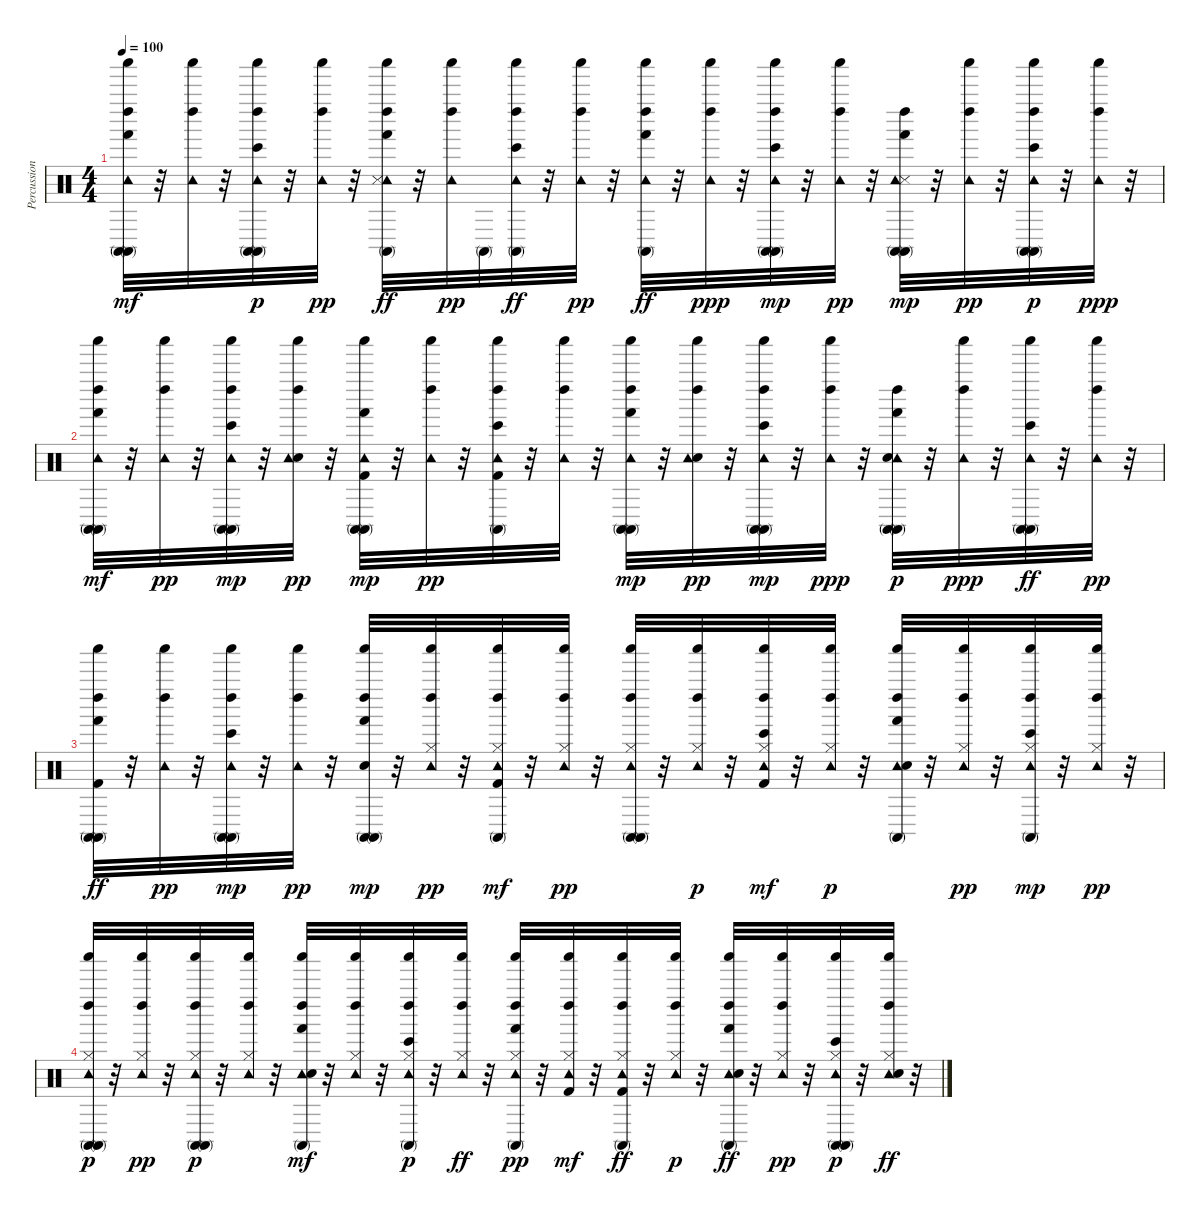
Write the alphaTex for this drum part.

\track ("Percussions" "Percussion") {instrument percussion}
\staff {score}
\articulation defaults
\ts (4 4)
\tempo 100
\clef neutral
\ks c
("Conga high (mute)" "Conga high (mute)" "Tambourine (hit)" "Hand (hit)" "Shaker (hit)" "Left Maraca (hit)").32{dy mf} r.32 ("Tambourine (hit)" "Shaker (hit)" "Left Maraca (hit)").32 r.32 ("Conga high (mute)" "Conga high (mute)" "Tambourine (hit)" "Bongo High (hit)" "Shaker (hit)" "Left Maraca (hit)").32{dy p} r.32 ("Tambourine (hit)" "Shaker (hit)" "Left Maraca (hit)").32{dy pp} r.32 ("Conga high (mute)" "Hand (hit)" "Tambourine (hit)" "Snare (side stick) 3" "Shaker (hit)" "Left Maraca (hit)").32{dy ff} r.32 ("Left Maraca (hit)" "Tambourine (hit)" "Shaker (hit)").32{dy pp} "Conga high (mute)".32 ("Conga high (mute)" "Bongo High (hit)" "Tambourine (hit)" "Left Maraca (hit)" "Shaker (hit)").32{dy ff} r.32 ("Tambourine (hit)" "Left Maraca (hit)" "Shaker (hit)").32{dy pp} r.32 ("Conga high (mute)" "Tambourine (hit)" "Hand (hit)" "Left Maraca (hit)" "Shaker (hit)").32{dy ff} r.32 ("Tambourine (hit)" "Left Maraca (hit)" "Shaker (hit)").32{dy ppp} r.32 ("Conga high (mute)" "Conga high (mute)" "Tambourine (hit)" "Bongo High (hit)" "Left Maraca (hit)" "Shaker (hit)").32{dy mp} r.32 ("Tambourine (hit)" "Left Maraca (hit)" "Shaker (hit)").32{dy pp} r.32 ("Conga high (mute)" "Snare (side stick) 3" "Tambourine (hit)" "Hand (hit)" "Conga high (mute)" "Left Maraca (hit)").32{dy mp} r.32 ("Tambourine (hit)" "Left Maraca (hit)" "Shaker (hit)").32{dy pp} r.32 ("Conga high (mute)" "Tambourine (hit)" "Bongo High (hit)" "Conga high (mute)" "Left Maraca (hit)" "Shaker (hit)").32{dy p} r.32 ("Tambourine (hit)" "Left Maraca (hit)" "Shaker (hit)").32{dy ppp} r.32 |
("Conga high (mute)" "Tambourine (hit)" "Hand (hit)" "Conga high (mute)" "Left Maraca (hit)" "Shaker (hit)").32{dy mf} r.32 ("Tambourine (hit)" "Left Maraca (hit)" "Shaker (hit)").32{dy pp} r.32 ("Conga high (mute)" "Bongo High (hit)" "Tambourine (hit)" "Left Maraca (hit)" "Shaker (hit)" "Conga high (mute)").32{dy mp} r.32 ("Electric Snare (hit)" "Tambourine (hit)" "Left Maraca (hit)" "Shaker (hit)").32{dy pp} r.32 ("Conga high (mute)" "Kick (hit) 2" "Tambourine (hit)" "Hand (hit)" "Shaker (hit)" "Conga high (mute)").32{dy mp} r.32 ("Tambourine (hit)" "Left Maraca (hit)" "Shaker (hit)").32{dy pp} r.32 ("Kick (hit) 2" "Conga high (mute)" "Tambourine (hit)" "Shaker (hit)" "Bongo High (hit)" "Left Maraca (hit)").32 r.32 ("Tambourine (hit)" "Left Maraca (hit)" "Shaker (hit)").32 r.32 ("Conga high (mute)" "Tambourine (hit)" "Hand (hit)" "Left Maraca (hit)" "Conga high (mute)" "Shaker (hit)").32{dy mp} r.32 ("Electric Snare (hit)" "Tambourine (hit)" "Left Maraca (hit)" "Shaker (hit)").32{dy pp} r.32 ("Conga high (mute)" "Tambourine (hit)" "Bongo High (hit)" "Left Maraca (hit)" "Shaker (hit)" "Conga high (mute)").32{dy mp} r.32 ("Left Maraca (hit)" "Tambourine (hit)" "Shaker (hit)").32{dy ppp} r.32 ("Conga high (mute)" "Tambourine (hit)" "Left Maraca (hit)" "Hand (hit)" "Electric Snare (hit)" "Conga high (mute)").32{dy p} r.32 ("Tambourine (hit)" "Left Maraca (hit)" "Shaker (hit)").32{dy ppp} r.32 ("Conga high (mute)" "Conga high (mute)" "Tambourine (hit)" "Bongo High (hit)" "Shaker (hit)").32{dy ff} r.32 ("Left Maraca (hit)" "Tambourine (hit)" "Shaker (hit)").32{dy pp} r.32 |
("Conga high (mute)" "Hand (hit)" "Left Maraca (hit)" "Conga high (mute)" "Kick (hit) 2" "Shaker (hit)").32{dy ff} r.32 ("Left Maraca (hit)" "Shaker (hit)" "Tambourine (hit)").32{dy pp} r.32 ("Conga high (mute)" "Left Maraca (hit)" "Shaker (hit)" "Conga high (mute)" "Bongo High (hit)" "Tambourine (hit)").32{dy mp} r.32 ("Left Maraca (hit)" "Shaker (hit)" "Tambourine (hit)").32{dy pp} r.32 ("Conga high (mute)" "Left Maraca (hit)" "Hand (hit)" "Electric Snare (hit)" "Shaker (hit)" "Conga high (mute)").32{dy mp} r.32 ("Left Maraca (hit)" "Hi-Hat (closed)" "Shaker (hit)" "Tambourine (hit)").32{dy pp} r.32 ("Conga high (mute)" "Left Maraca (hit)" "Kick (hit) 2" "Shaker (hit)" "Tambourine (hit)" "Hi-Hat (closed)").32{dy mf} r.32 ("Left Maraca (hit)" "Tambourine (hit)" "Hi-Hat (closed)" "Shaker (hit)").32{dy pp} r.32 ("Conga high (mute)" "Conga high (mute)" "Left Maraca (hit)" "Shaker (hit)" "Tambourine (hit)" "Hi-Hat (closed)").32 r.32 ("Left Maraca (hit)" "Hi-Hat (closed)" "Tambourine (hit)" "Shaker (hit)").32{dy p} r.32 ("Left Maraca (hit)" "Kick (hit) 2" "Tambourine (hit)" "Shaker (hit)" "Hi-Hat (closed)" "Bongo High (hit)").32{dy mf} r.32 ("Tambourine (hit)" "Left Maraca (hit)" "Hi-Hat (closed)" "Shaker (hit)").32{dy p} r.32 ("Tambourine (hit)" "Left Maraca (hit)" "Electric Snare (hit)" "Shaker (hit)" "Hand (hit)" "Conga high (mute)").32 r.32 ("Tambourine (hit)" "Left Maraca (hit)" "Hi-Hat (closed)" "Shaker (hit)").32{dy pp} r.32 ("Tambourine (hit)" "Left Maraca (hit)" "Conga high (mute)" "Hi-Hat (closed)" "Shaker (hit)" "Bongo High (hit)").32{dy mp} r.32 ("Tambourine (hit)" "Hi-Hat (closed)" "Left Maraca (hit)" "Shaker (hit)").32{dy pp} r.32 |
("Tambourine (hit)" "Conga high (mute)" "Left Maraca (hit)" "Conga high (mute)" "Hi-Hat (closed)" "Shaker (hit)").32{dy p} r.32 ("Tambourine (hit)" "Left Maraca (hit)" "Hi-Hat (closed)" "Shaker (hit)").32{dy pp} r.32 ("Conga high (mute)" "Tambourine (hit)" "Left Maraca (hit)" "Conga high (mute)" "Hi-Hat (closed)" "Shaker (hit)").32{dy p} r.32 ("Tambourine (hit)" "Hi-Hat (closed)" "Left Maraca (hit)" "Shaker (hit)").32 r.32 ("Tambourine (hit)" "Left Maraca (hit)" "Electric Snare (hit)" "Conga high (mute)" "Shaker (hit)" "Hand (hit)").32{dy mf} r.32 ("Tambourine (hit)" "Hi-Hat (closed)" "Shaker (hit)" "Left Maraca (hit)").32 r.32 ("Tambourine (hit)" "Conga high (mute)" "Left Maraca (hit)" "Hi-Hat (closed)" "Shaker (hit)" "Bongo High (hit)").32{dy p} r.32 ("Tambourine (hit)" "Hi-Hat (closed)" "Shaker (hit)" "Left Maraca (hit)").32{dy ff} r.32 ("Tambourine (hit)" "Hi-Hat (closed)" "Shaker (hit)" "Conga high (mute)" "Hand (hit)" "Left Maraca (hit)").32{dy pp} r.32 ("Tambourine (hit)" "Hi-Hat (closed)" "Kick (hit) 2" "Shaker (hit)" "Left Maraca (hit)").32{dy mf} r.32 ("Kick (hit) 2" "Tambourine (hit)" "Hi-Hat (closed)" "Conga high (mute)" "Left Maraca (hit)" "Shaker (hit)").32{dy ff} r.32 ("Tambourine (hit)" "Hi-Hat (closed)" "Left Maraca (hit)" "Shaker (hit)").32{dy p} r.32 ("Conga high (mute)" "Tambourine (hit)" "Electric Snare (hit)" "Hand (hit)" "Left Maraca (hit)" "Shaker (hit)").32{dy ff} r.32 ("Tambourine (hit)" "Hi-Hat (closed)" "Left Maraca (hit)" "Shaker (hit)").32{dy pp} r.32 ("Conga high (mute)" "Tambourine (hit)" "Hi-Hat (closed)" "Conga high (mute)" "Shaker (hit)" "Bongo High (hit)").32{dy p} r.32 ("Tambourine (hit)" "Hi-Hat (closed)" "Electric Snare (hit)" "Shaker (hit)" "Left Maraca (hit)").32{dy ff} r.32
